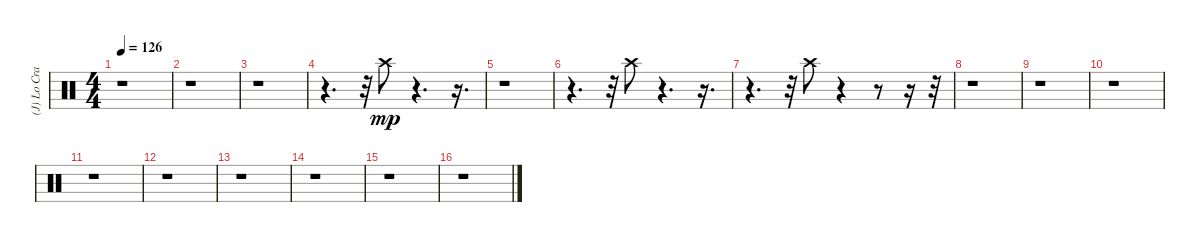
\track ("(J) Lo Crash Cymbal" "(J) Lo Cra") {instrument percussion}
\staff {score}
\articulation defaults
\ts (4 4)
\tempo 126
\clef neutral
\ks c
r.1{dy mp} |
r.1 |
r.1 |
r.4{d} r.32 "Crash high (hit)".8 r.4{d} r.16{d} |
r.1 |
r.4{d} r.32 "Crash high (hit)".8 r.4{d} r.16{d} |
r.4{d} r.32 "Crash high (hit)".8 r.4 r.8 r.16 r.32 |
r.1 |
r.1 |
r.1 |
r.1 |
r.1 |
r.1 |
r.1 |
r.1 |
r.1
